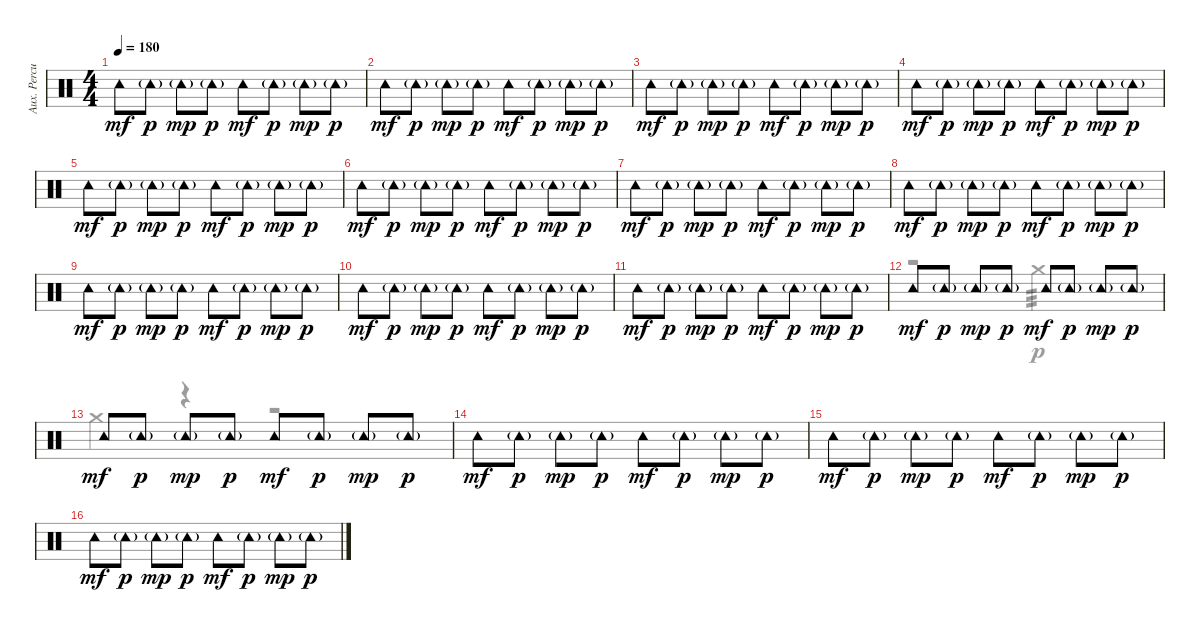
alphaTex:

\track ("Aux. Percussion" "Aux. Percu") {instrument percussion}
\staff {score}
\articulation defaults
\voice
\ts (4 4)
\tempo 180
\clef neutral
\ks c "Tambourine (hit)".8{dy mf} "Tambourine (hit)"{g}.8{dy p} "Tambourine (hit)"{g}.8{dy mp} "Tambourine (hit)"{g}.8{dy p} "Tambourine (hit)".8{dy mf} "Tambourine (hit)"{g}.8{dy p} "Tambourine (hit)"{g}.8{dy mp} "Tambourine (hit)"{g}.8{dy p}
|
"Tambourine (hit)".8{dy mf} "Tambourine (hit)"{g}.8{dy p} "Tambourine (hit)"{g}.8{dy mp} "Tambourine (hit)"{g}.8{dy p} "Tambourine (hit)".8{dy mf} "Tambourine (hit)"{g}.8{dy p} "Tambourine (hit)"{g}.8{dy mp} "Tambourine (hit)"{g}.8{dy p} |
"Tambourine (hit)".8{dy mf} "Tambourine (hit)"{g}.8{dy p} "Tambourine (hit)"{g}.8{dy mp} "Tambourine (hit)"{g}.8{dy p} "Tambourine (hit)".8{dy mf} "Tambourine (hit)"{g}.8{dy p} "Tambourine (hit)"{g}.8{dy mp} "Tambourine (hit)"{g}.8{dy p} |
"Tambourine (hit)".8{dy mf} "Tambourine (hit)"{g}.8{dy p} "Tambourine (hit)"{g}.8{dy mp} "Tambourine (hit)"{g}.8{dy p} "Tambourine (hit)".8{dy mf} "Tambourine (hit)"{g}.8{dy p} "Tambourine (hit)"{g}.8{dy mp} "Tambourine (hit)"{g}.8{dy p} |
"Tambourine (hit)".8{dy mf} "Tambourine (hit)"{g}.8{dy p} "Tambourine (hit)"{g}.8{dy mp} "Tambourine (hit)"{g}.8{dy p} "Tambourine (hit)".8{dy mf} "Tambourine (hit)"{g}.8{dy p} "Tambourine (hit)"{g}.8{dy mp} "Tambourine (hit)"{g}.8{dy p} |
"Tambourine (hit)".8{dy mf} "Tambourine (hit)"{g}.8{dy p} "Tambourine (hit)"{g}.8{dy mp} "Tambourine (hit)"{g}.8{dy p} "Tambourine (hit)".8{dy mf} "Tambourine (hit)"{g}.8{dy p} "Tambourine (hit)"{g}.8{dy mp} "Tambourine (hit)"{g}.8{dy p} |
"Tambourine (hit)".8{dy mf} "Tambourine (hit)"{g}.8{dy p} "Tambourine (hit)"{g}.8{dy mp} "Tambourine (hit)"{g}.8{dy p} "Tambourine (hit)".8{dy mf} "Tambourine (hit)"{g}.8{dy p} "Tambourine (hit)"{g}.8{dy mp} "Tambourine (hit)"{g}.8{dy p} |
"Tambourine (hit)".8{dy mf} "Tambourine (hit)"{g}.8{dy p} "Tambourine (hit)"{g}.8{dy mp} "Tambourine (hit)"{g}.8{dy p} "Tambourine (hit)".8{dy mf} "Tambourine (hit)"{g}.8{dy p} "Tambourine (hit)"{g}.8{dy mp} "Tambourine (hit)"{g}.8{dy p} |
"Tambourine (hit)".8{dy mf} "Tambourine (hit)"{g}.8{dy p} "Tambourine (hit)"{g}.8{dy mp} "Tambourine (hit)"{g}.8{dy p} "Tambourine (hit)".8{dy mf} "Tambourine (hit)"{g}.8{dy p} "Tambourine (hit)"{g}.8{dy mp} "Tambourine (hit)"{g}.8{dy p} |
"Tambourine (hit)".8{dy mf} "Tambourine (hit)"{g}.8{dy p} "Tambourine (hit)"{g}.8{dy mp} "Tambourine (hit)"{g}.8{dy p} "Tambourine (hit)".8{dy mf} "Tambourine (hit)"{g}.8{dy p} "Tambourine (hit)"{g}.8{dy mp} "Tambourine (hit)"{g}.8{dy p} |
"Tambourine (hit)".8{dy mf} "Tambourine (hit)"{g}.8{dy p} "Tambourine (hit)"{g}.8{dy mp} "Tambourine (hit)"{g}.8{dy p} "Tambourine (hit)".8{dy mf} "Tambourine (hit)"{g}.8{dy p} "Tambourine (hit)"{g}.8{dy mp} "Tambourine (hit)"{g}.8{dy p} |
"Tambourine (hit)".8{dy mf} "Tambourine (hit)"{g}.8{dy p} "Tambourine (hit)"{g}.8{dy mp} "Tambourine (hit)"{g}.8{dy p} "Tambourine (hit)".8{dy mf} "Tambourine (hit)"{g}.8{dy p} "Tambourine (hit)"{g}.8{dy mp} "Tambourine (hit)"{g}.8{dy p} |
"Tambourine (hit)".8{dy mf} "Tambourine (hit)"{g}.8{dy p} "Tambourine (hit)"{g}.8{dy mp} "Tambourine (hit)"{g}.8{dy p} "Tambourine (hit)".8{dy mf} "Tambourine (hit)"{g}.8{dy p} "Tambourine (hit)"{g}.8{dy mp} "Tambourine (hit)"{g}.8{dy p} |
"Tambourine (hit)".8{dy mf} "Tambourine (hit)"{g}.8{dy p} "Tambourine (hit)"{g}.8{dy mp} "Tambourine (hit)"{g}.8{dy p} "Tambourine (hit)".8{dy mf} "Tambourine (hit)"{g}.8{dy p} "Tambourine (hit)"{g}.8{dy mp} "Tambourine (hit)"{g}.8{dy p} |
"Tambourine (hit)".8{dy mf} "Tambourine (hit)"{g}.8{dy p} "Tambourine (hit)"{g}.8{dy mp} "Tambourine (hit)"{g}.8{dy p} "Tambourine (hit)".8{dy mf} "Tambourine (hit)"{g}.8{dy p} "Tambourine (hit)"{g}.8{dy mp} "Tambourine (hit)"{g}.8{dy p} |
"Tambourine (hit)".8{dy mf} "Tambourine (hit)"{g}.8{dy p} "Tambourine (hit)"{g}.8{dy mp} "Tambourine (hit)"{g}.8{dy p} "Tambourine (hit)".8{dy mf} "Tambourine (hit)"{g}.8{dy p} "Tambourine (hit)"{g}.8{dy mp} "Tambourine (hit)"{g}.8{dy p}
\voice
\clef neutral
\ottava regular
\simile none
\ks c
|
|
|
|
|
|
|
|
|
|
|
r.2 "Crash medium (hit)".2{tp 3} |
"Crash medium (hit)".4 r.4 r.2 |
|
|
